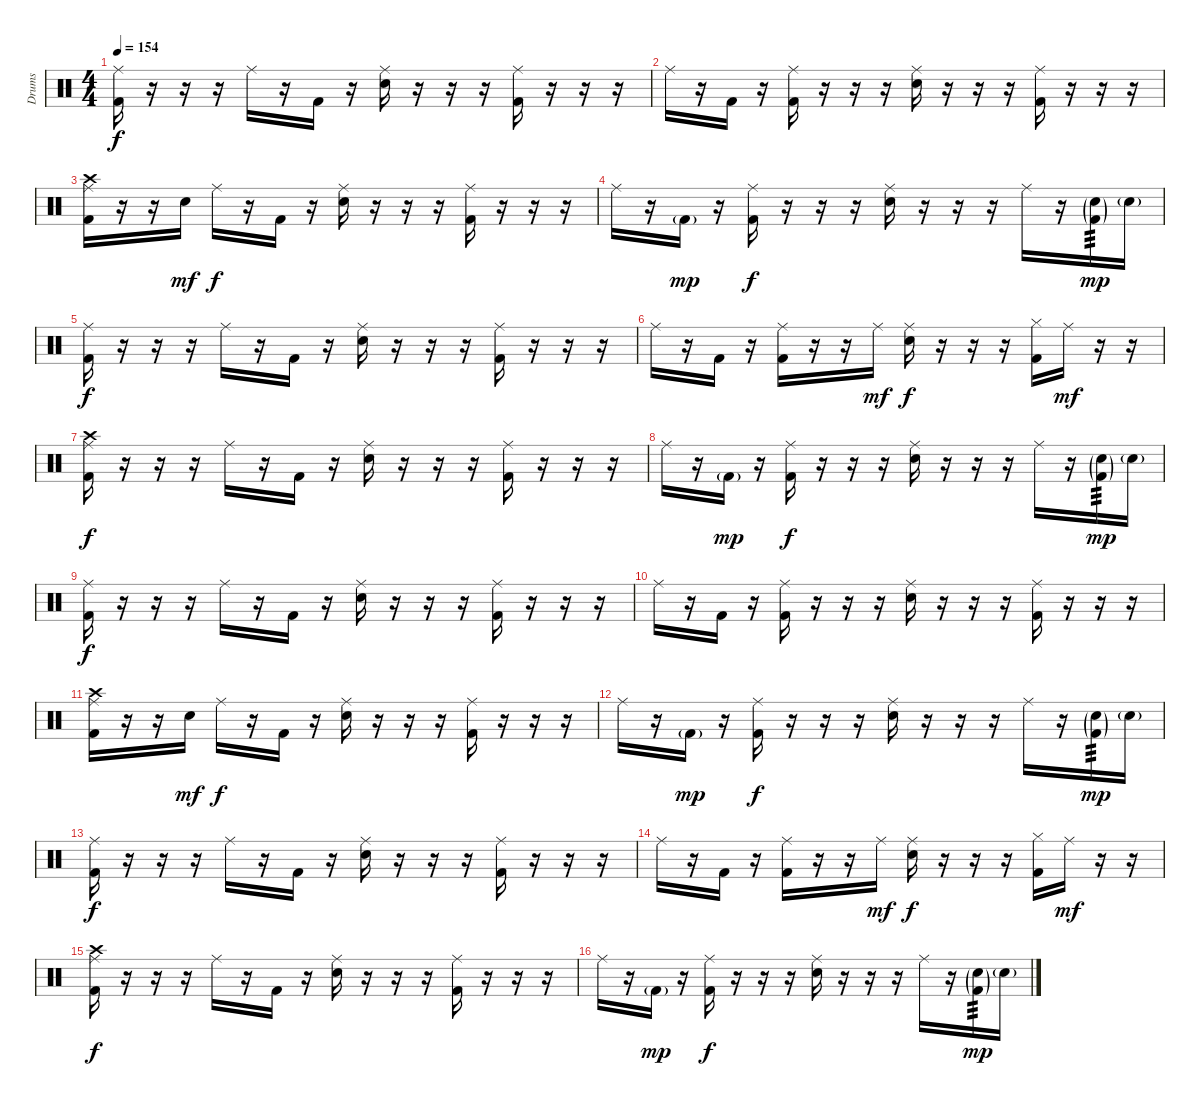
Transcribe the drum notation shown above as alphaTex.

\track ("Drums" "Drums") {instrument percussion}
\staff {score}
\articulation defaults
\ts (4 4)
\tempo 154
\clef neutral
\ks c
("Ride (middle)" "Kick (hit) 2").16{dy f} r.16 r.16 r.16 "Ride (middle)".16 r.16 "Kick (hit) 2".16 r.16 ("Ride (middle)" "Electric Snare (hit)").16 r.16 r.16 r.16 ("Ride (middle)" "Kick (hit) 2").16 r.16 r.16 r.16 |
"Ride (middle)".16 r.16 "Kick (hit) 2".16 r.16 ("Ride (middle)" "Kick (hit) 2").16 r.16 r.16 r.16 ("Ride (middle)" "Electric Snare (hit)").16 r.16 r.16 r.16 ("Ride (middle)" "Kick (hit) 2").16 r.16 r.16 r.16 |
("Crash high (hit)" "Ride (middle)" "Kick (hit) 2").16 r.16 r.16 "Snare (hit)".16{dy mf} "Ride (middle)".16{dy f} r.16 "Kick (hit) 2".16 r.16 ("Ride (middle)" "Electric Snare (hit)").16 r.16 r.16 r.16 ("Ride (middle)" "Kick (hit) 2").16 r.16 r.16 r.16 |
"Ride (middle)".16 r.16 "Kick (hit) 2"{g}.16{dy mp} r.16 ("Ride (middle)" "Kick (hit) 2").16{dy f} r.16 r.16 r.16 ("Ride (middle)" "Electric Snare (hit)").16 r.16 r.16 r.16 "Ride (middle)".16 r.16 ("Electric Snare (hit)"{g} "Kick (hit) 2"{g}).16{tp 3 dy mp} "Electric Snare (hit)"{g}.16 |
("Ride (middle)" "Kick (hit) 2").16{dy f} r.16 r.16 r.16 "Ride (middle)".16 r.16 "Kick (hit) 2".16 r.16 ("Ride (middle)" "Electric Snare (hit)").16 r.16 r.16 r.16 ("Ride (middle)" "Kick (hit) 2").16 r.16 r.16 r.16 |
"Ride (middle)".16 r.16 "Kick (hit) 2".16 r.16 ("Ride (middle)" "Kick (hit) 2").16 r.16 r.16 "Ride (middle)".16{dy mf} ("Ride (middle)" "Electric Snare (hit)").16{dy f} r.16 r.16 r.16 ("Hi-Hat (closed)" "Kick (hit) 2").16 "Ride (middle)".16{dy mf} r.16 r.16 |
("Crash high (hit)" "Ride (middle)" "Kick (hit) 2").16{dy f} r.16 r.16 r.16 "Ride (middle)".16 r.16 "Kick (hit) 2".16 r.16 ("Ride (middle)" "Electric Snare (hit)").16 r.16 r.16 r.16 ("Ride (middle)" "Kick (hit) 2").16 r.16 r.16 r.16 |
"Ride (middle)".16 r.16 "Kick (hit) 2"{g}.16{dy mp} r.16 ("Ride (middle)" "Kick (hit) 2").16{dy f} r.16 r.16 r.16 ("Ride (middle)" "Electric Snare (hit)").16 r.16 r.16 r.16 "Ride (middle)".16 r.16 ("Electric Snare (hit)"{g} "Kick (hit) 2"{g}).16{tp 3 dy mp} "Electric Snare (hit)"{g}.16 |
("Ride (middle)" "Kick (hit) 2").16{dy f} r.16 r.16 r.16 "Ride (middle)".16 r.16 "Kick (hit) 2".16 r.16 ("Ride (middle)" "Electric Snare (hit)").16 r.16 r.16 r.16 ("Ride (middle)" "Kick (hit) 2").16 r.16 r.16 r.16 |
"Ride (middle)".16 r.16 "Kick (hit) 2".16 r.16 ("Ride (middle)" "Kick (hit) 2").16 r.16 r.16 r.16 ("Ride (middle)" "Electric Snare (hit)").16 r.16 r.16 r.16 ("Ride (middle)" "Kick (hit) 2").16 r.16 r.16 r.16 |
("Crash high (hit)" "Ride (middle)" "Kick (hit) 2").16 r.16 r.16 "Snare (hit)".16{dy mf} "Ride (middle)".16{dy f} r.16 "Kick (hit) 2".16 r.16 ("Ride (middle)" "Electric Snare (hit)").16 r.16 r.16 r.16 ("Ride (middle)" "Kick (hit) 2").16 r.16 r.16 r.16 |
"Ride (middle)".16 r.16 "Kick (hit) 2"{g}.16{dy mp} r.16 ("Ride (middle)" "Kick (hit) 2").16{dy f} r.16 r.16 r.16 ("Ride (middle)" "Electric Snare (hit)").16 r.16 r.16 r.16 "Ride (middle)".16 r.16 ("Electric Snare (hit)"{g} "Kick (hit) 2"{g}).16{tp 3 dy mp} "Electric Snare (hit)"{g}.16 |
("Ride (middle)" "Kick (hit) 2").16{dy f} r.16 r.16 r.16 "Ride (middle)".16 r.16 "Kick (hit) 2".16 r.16 ("Ride (middle)" "Electric Snare (hit)").16 r.16 r.16 r.16 ("Ride (middle)" "Kick (hit) 2").16 r.16 r.16 r.16 |
"Ride (middle)".16 r.16 "Kick (hit) 2".16 r.16 ("Ride (middle)" "Kick (hit) 2").16 r.16 r.16 "Ride (middle)".16{dy mf} ("Ride (middle)" "Electric Snare (hit)").16{dy f} r.16 r.16 r.16 ("Hi-Hat (closed)" "Kick (hit) 2").16 "Ride (middle)".16{dy mf} r.16 r.16 |
("Crash high (hit)" "Ride (middle)" "Kick (hit) 2").16{dy f} r.16 r.16 r.16 "Ride (middle)".16 r.16 "Kick (hit) 2".16 r.16 ("Ride (middle)" "Electric Snare (hit)").16 r.16 r.16 r.16 ("Ride (middle)" "Kick (hit) 2").16 r.16 r.16 r.16 |
"Ride (middle)".16 r.16 "Kick (hit) 2"{g}.16{dy mp} r.16 ("Ride (middle)" "Kick (hit) 2").16{dy f} r.16 r.16 r.16 ("Ride (middle)" "Electric Snare (hit)").16 r.16 r.16 r.16 "Ride (middle)".16 r.16 ("Electric Snare (hit)"{g} "Kick (hit) 2"{g}).16{tp 3 dy mp} "Electric Snare (hit)"{g}.16
